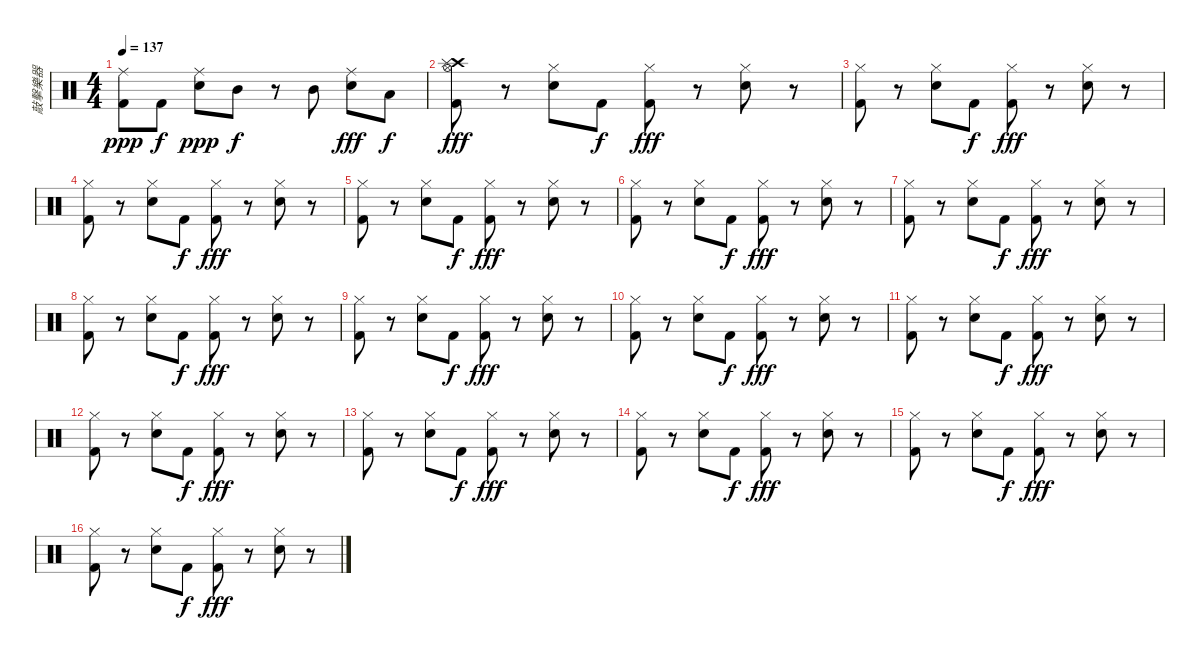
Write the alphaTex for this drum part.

\track ("敲擊樂器" "敲擊樂器") {instrument percussion}
\staff {score}
\articulation defaults
\ts (4 4)
\tempo 137
\clef neutral
\ks c
("Kick (hit) 2" "Ride (middle)").8{dy ppp} "Kick (hit) 2".8{dy f} ("Snare (hit) 2" "Ride (middle)").8{dy ppp} "Mid Tom (hit)".8{dy f} r.8 "Mid Tom (hit)".8 ("Snare (hit) 2" "Ride (middle)").8{dy fff} "Low Tom (hit)".8{dy f} |
("Crash high (hit)" "Splash (hit)" "Kick (hit) 2" "Hi-Hat (open)").8{dy fff} r.8 ("Snare (hit) 2" "Hi-Hat (closed)").8 "Kick (hit) 2".8{dy f} ("Kick (hit) 2" "Hi-Hat (closed)").8{dy fff} r.8 ("Snare (hit) 2" "Hi-Hat (closed)").8 r.8 |
("Kick (hit) 2" "Hi-Hat (closed)").8 r.8 ("Snare (hit) 2" "Hi-Hat (closed)").8 "Kick (hit) 2".8{dy f} ("Kick (hit) 2" "Hi-Hat (closed)").8{dy fff} r.8 ("Snare (hit) 2" "Hi-Hat (closed)").8 r.8 |
("Kick (hit) 2" "Hi-Hat (closed)").8 r.8 ("Snare (hit) 2" "Hi-Hat (closed)").8 "Kick (hit) 2".8{dy f} ("Kick (hit) 2" "Hi-Hat (closed)").8{dy fff} r.8 ("Snare (hit) 2" "Hi-Hat (closed)").8 r.8 |
("Kick (hit) 2" "Hi-Hat (closed)").8 r.8 ("Snare (hit) 2" "Hi-Hat (closed)").8 "Kick (hit) 2".8{dy f} ("Kick (hit) 2" "Hi-Hat (closed)").8{dy fff} r.8 ("Snare (hit) 2" "Hi-Hat (closed)").8 r.8 |
("Kick (hit) 2" "Hi-Hat (closed)").8 r.8 ("Snare (hit) 2" "Hi-Hat (closed)").8 "Kick (hit) 2".8{dy f} ("Kick (hit) 2" "Hi-Hat (closed)").8{dy fff} r.8 ("Snare (hit) 2" "Hi-Hat (closed)").8 r.8 |
("Kick (hit) 2" "Hi-Hat (closed)").8 r.8 ("Snare (hit) 2" "Hi-Hat (closed)").8 "Kick (hit) 2".8{dy f} ("Kick (hit) 2" "Hi-Hat (closed)").8{dy fff} r.8 ("Snare (hit) 2" "Hi-Hat (closed)").8 r.8 |
("Kick (hit) 2" "Hi-Hat (closed)").8 r.8 ("Snare (hit) 2" "Hi-Hat (closed)").8 "Kick (hit) 2".8{dy f} ("Kick (hit) 2" "Hi-Hat (closed)").8{dy fff} r.8 ("Snare (hit) 2" "Hi-Hat (closed)").8 r.8 |
("Kick (hit) 2" "Hi-Hat (closed)").8 r.8 ("Snare (hit) 2" "Hi-Hat (closed)").8 "Kick (hit) 2".8{dy f} ("Kick (hit) 2" "Hi-Hat (closed)").8{dy fff} r.8 ("Snare (hit) 2" "Hi-Hat (closed)").8 r.8 |
("Kick (hit) 2" "Hi-Hat (closed)").8 r.8 ("Snare (hit) 2" "Hi-Hat (closed)").8 "Kick (hit) 2".8{dy f} ("Kick (hit) 2" "Hi-Hat (closed)").8{dy fff} r.8 ("Snare (hit) 2" "Hi-Hat (closed)").8 r.8 |
("Kick (hit) 2" "Hi-Hat (closed)").8 r.8 ("Snare (hit) 2" "Hi-Hat (closed)").8 "Kick (hit) 2".8{dy f} ("Kick (hit) 2" "Hi-Hat (closed)").8{dy fff} r.8 ("Snare (hit) 2" "Hi-Hat (closed)").8 r.8 |
("Kick (hit) 2" "Hi-Hat (closed)").8 r.8 ("Snare (hit) 2" "Hi-Hat (closed)").8 "Kick (hit) 2".8{dy f} ("Kick (hit) 2" "Hi-Hat (closed)").8{dy fff} r.8 ("Snare (hit) 2" "Hi-Hat (closed)").8 r.8 |
("Kick (hit) 2" "Hi-Hat (closed)").8 r.8 ("Snare (hit) 2" "Hi-Hat (closed)").8 "Kick (hit) 2".8{dy f} ("Kick (hit) 2" "Hi-Hat (closed)").8{dy fff} r.8 ("Snare (hit) 2" "Hi-Hat (closed)").8 r.8 |
("Kick (hit) 2" "Hi-Hat (closed)").8 r.8 ("Snare (hit) 2" "Hi-Hat (closed)").8 "Kick (hit) 2".8{dy f} ("Kick (hit) 2" "Hi-Hat (closed)").8{dy fff} r.8 ("Snare (hit) 2" "Hi-Hat (closed)").8 r.8 |
("Kick (hit) 2" "Hi-Hat (closed)").8 r.8 ("Snare (hit) 2" "Hi-Hat (closed)").8 "Kick (hit) 2".8{dy f} ("Kick (hit) 2" "Hi-Hat (closed)").8{dy fff} r.8 ("Snare (hit) 2" "Hi-Hat (closed)").8 r.8 |
("Kick (hit) 2" "Hi-Hat (closed)").8 r.8 ("Snare (hit) 2" "Hi-Hat (closed)").8 "Kick (hit) 2".8{dy f} ("Kick (hit) 2" "Hi-Hat (closed)").8{dy fff} r.8 ("Snare (hit) 2" "Hi-Hat (closed)").8 r.8
